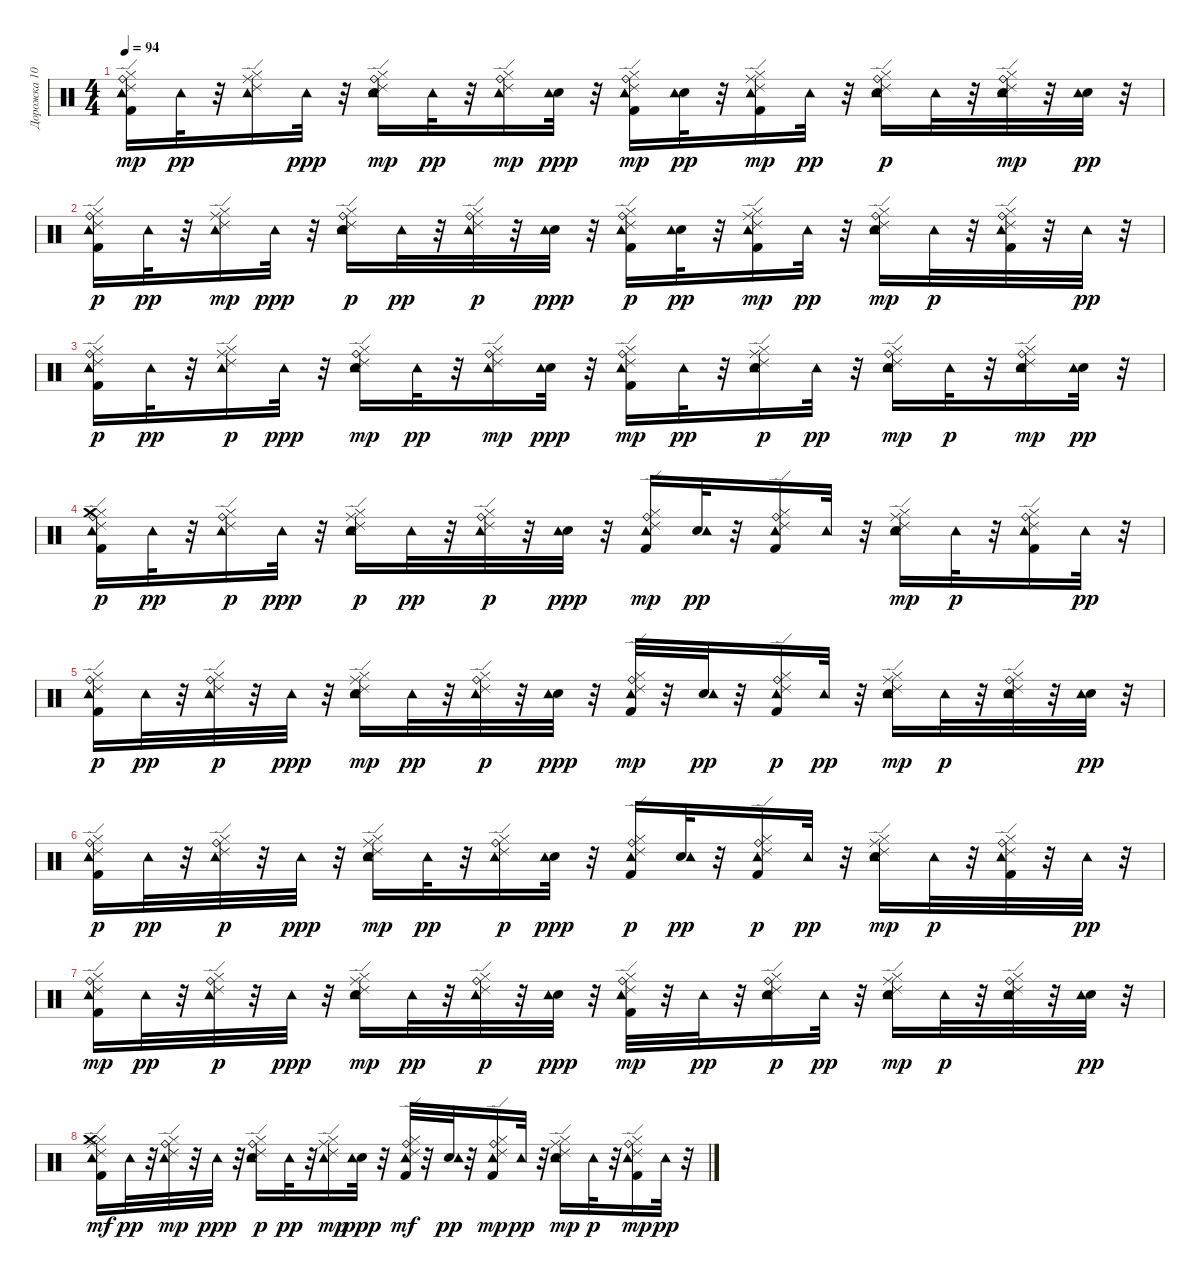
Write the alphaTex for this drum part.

\track ("Дорожка 10" "Дорожка 10") {instrument percussion}
\staff {score}
\articulation defaults
\ts (4 4)
\tempo 94
\clef neutral
\ks c
("Kick (hit) 2" "Hi-Hat (closed)" "Ride (bell)" "Tambourine (hit)" "Ride (edge) 2").16{dy mp} "Tambourine (hit)".32{dy pp} r.32 ("Hi-Hat (closed)" "Ride (middle)" "Tambourine (hit)" "Ride (edge) 2").16 "Tambourine (hit)".32{dy ppp} r.32 ("Electric Snare (hit)" "Hi-Hat (closed)" "Ride (bell)" "Tambourine (hit)" "Ride (edge) 2").16{dy mp} "Tambourine (hit)".32{dy pp} r.32 ("Hi-Hat (closed)" "Ride (bell)" "Tambourine (hit)" "Ride (edge) 2").16{dy mp} ("Electric Snare (hit)" "Tambourine (hit)").32{dy ppp} r.32 ("Kick (hit) 2" "Hi-Hat (closed)" "Ride (bell)" "Tambourine (hit)" "Ride (edge) 2").16{dy mp} ("Electric Snare (hit)" "Tambourine (hit)").32{dy pp} r.32 ("Kick (hit) 2" "Hi-Hat (closed)" "Ride (middle)" "Tambourine (hit)" "Ride (edge) 2").16{dy mp} "Tambourine (hit)".32{dy pp} r.32 ("Electric Snare (hit)" "Hi-Hat (closed)" "Ride (bell)" "Tambourine (hit)" "Ride (edge) 2").16{dy p} "Tambourine (hit)".32 r.32 ("Electric Snare (hit)" "Hi-Hat (closed)" "Ride (bell)" "Tambourine (hit)" "Ride (edge) 2").32{dy mp} r.32 ("Electric Snare (hit)" "Tambourine (hit)").32{dy pp} r.32 |
("Kick (hit) 2" "Hi-Hat (closed)" "Ride (bell)" "Tambourine (hit)" "Ride (edge) 2").16{dy p} "Tambourine (hit)".32{dy pp} r.32 ("Hi-Hat (closed)" "Ride (middle)" "Tambourine (hit)" "Ride (edge) 2").16{dy mp} "Tambourine (hit)".32{dy ppp} r.32 ("Electric Snare (hit)" "Hi-Hat (closed)" "Ride (bell)" "Tambourine (hit)" "Ride (edge) 2").16{dy p} "Tambourine (hit)".32{dy pp} r.32 ("Hi-Hat (closed)" "Ride (bell)" "Tambourine (hit)" "Ride (edge) 2").32{dy p} r.32 ("Electric Snare (hit)" "Tambourine (hit)").32{dy ppp} r.32 ("Kick (hit) 2" "Hi-Hat (closed)" "Ride (bell)" "Tambourine (hit)" "Ride (edge) 2").16{dy p} ("Electric Snare (hit)" "Tambourine (hit)").32{dy pp} r.32 ("Kick (hit) 2" "Hi-Hat (closed)" "Ride (middle)" "Tambourine (hit)" "Ride (edge) 2").16{dy mp} "Tambourine (hit)".32{dy pp} r.32 ("Electric Snare (hit)" "Hi-Hat (closed)" "Ride (bell)" "Tambourine (hit)" "Ride (edge) 2").16{dy mp} "Tambourine (hit)".32{dy p} r.32 ("Kick (hit) 2" "Hi-Hat (closed)" "Ride (bell)" "Tambourine (hit)" "Ride (edge) 2").32 r.32 "Tambourine (hit)".32{dy pp} r.32 |
("Kick (hit) 2" "Hi-Hat (closed)" "Ride (bell)" "Tambourine (hit)" "Ride (edge) 2").16{dy p} "Tambourine (hit)".32{dy pp} r.32 ("Hi-Hat (closed)" "Ride (middle)" "Tambourine (hit)" "Ride (edge) 2").16{dy p} "Tambourine (hit)".32{dy ppp} r.32 ("Electric Snare (hit)" "Hi-Hat (closed)" "Ride (bell)" "Tambourine (hit)" "Ride (edge) 2").16{dy mp} "Tambourine (hit)".32{dy pp} r.32 ("Hi-Hat (closed)" "Ride (bell)" "Tambourine (hit)" "Ride (edge) 2").16{dy mp} ("Electric Snare (hit)" "Tambourine (hit)").32{dy ppp} r.32 ("Kick (hit) 2" "Hi-Hat (closed)" "Ride (bell)" "Tambourine (hit)" "Ride (edge) 2").16{dy mp} "Tambourine (hit)".32{dy pp} r.32 ("Electric Snare (hit)" "Hi-Hat (closed)" "Ride (middle)" "Tambourine (hit)" "Ride (edge) 2").16{dy p} "Tambourine (hit)".32{dy pp} r.32 ("Electric Snare (hit)" "Hi-Hat (closed)" "Ride (bell)" "Tambourine (hit)" "Ride (edge) 2").16{dy mp} "Tambourine (hit)".32{dy p} r.32 ("Electric Snare (hit)" "Hi-Hat (closed)" "Ride (bell)" "Tambourine (hit)" "Ride (edge) 2").16{dy mp} ("Electric Snare (hit)" "Tambourine (hit)").32{dy pp} r.32 |
("Kick (hit) 2" "Hi-Hat (closed)" "Ride (bell)" "Tambourine (hit)" "Crash medium (hit)" "Ride (edge) 2").16{dy p} "Tambourine (hit)".32{dy pp} r.32 ("Hi-Hat (closed)" "Ride (bell)" "Tambourine (hit)" "Ride (edge) 2").16{dy p} "Tambourine (hit)".32{dy ppp} r.32 ("Electric Snare (hit)" "Hi-Hat (closed)" "Ride (middle)" "Tambourine (hit)" "Ride (edge) 2").16{dy p} "Tambourine (hit)".32{dy pp} r.32 ("Hi-Hat (closed)" "Ride (bell)" "Tambourine (hit)" "Ride (edge) 2").32{dy p} r.32 ("Electric Snare (hit)" "Tambourine (hit)").32{dy ppp} r.32 ("Kick (hit) 2" "Hi-Hat (closed)" "Ride (bell)" "Tambourine (hit)" "Ride (edge) 2").16{dy mp} ("Electric Snare (hit)" "Tambourine (hit)").32{dy pp} r.32 ("Kick (hit) 2" "Hi-Hat (closed)" "Ride (bell)" "Tambourine (hit)" "Ride (edge) 2").16 "Tambourine (hit)".32 r.32 ("Electric Snare (hit)" "Hi-Hat (closed)" "Ride (middle)" "Tambourine (hit)" "Ride (edge) 2").16{dy mp} "Tambourine (hit)".32{dy p} r.32 ("Kick (hit) 2" "Hi-Hat (closed)" "Ride (bell)" "Tambourine (hit)" "Ride (edge) 2").16 "Tambourine (hit)".32{dy pp} r.32 |
("Kick (hit) 2" "Hi-Hat (closed)" "Ride (bell)" "Tambourine (hit)" "Ride (edge) 2").16{dy p} "Tambourine (hit)".32{dy pp} r.32 ("Hi-Hat (closed)" "Ride (bell)" "Tambourine (hit)" "Ride (edge) 2").32{dy p} r.32 "Tambourine (hit)".32{dy ppp} r.32 ("Electric Snare (hit)" "Hi-Hat (closed)" "Ride (middle)" "Tambourine (hit)" "Ride (edge) 2").16{dy mp} "Tambourine (hit)".32{dy pp} r.32 ("Hi-Hat (closed)" "Ride (bell)" "Tambourine (hit)" "Ride (edge) 2").32{dy p} r.32 ("Electric Snare (hit)" "Tambourine (hit)").32{dy ppp} r.32 ("Kick (hit) 2" "Hi-Hat (closed)" "Ride (bell)" "Tambourine (hit)" "Ride (edge) 2").32{dy mp} r.32 ("Electric Snare (hit)" "Tambourine (hit)").32{dy pp} r.32 ("Kick (hit) 2" "Hi-Hat (closed)" "Ride (bell)" "Tambourine (hit)" "Ride (edge) 2").16{dy p} "Tambourine (hit)".32{dy pp} r.32 ("Electric Snare (hit)" "Hi-Hat (closed)" "Ride (middle)" "Tambourine (hit)" "Ride (edge) 2").16{dy mp} "Tambourine (hit)".32{dy p} r.32 ("Electric Snare (hit)" "Hi-Hat (closed)" "Ride (bell)" "Tambourine (hit)" "Ride (edge) 2").32 r.32 ("Electric Snare (hit)" "Tambourine (hit)").32{dy pp} r.32 |
("Kick (hit) 2" "Hi-Hat (closed)" "Ride (bell)" "Tambourine (hit)" "Ride (edge) 2").16{dy p} "Tambourine (hit)".32{dy pp} r.32 ("Hi-Hat (closed)" "Ride (bell)" "Tambourine (hit)" "Ride (edge) 2").32{dy p} r.32 "Tambourine (hit)".32{dy ppp} r.32 ("Electric Snare (hit)" "Hi-Hat (closed)" "Ride (middle)" "Tambourine (hit)" "Ride (edge) 2").16{dy mp} "Tambourine (hit)".32{dy pp} r.32 ("Hi-Hat (closed)" "Ride (bell)" "Tambourine (hit)" "Ride (edge) 2").16{dy p} ("Electric Snare (hit)" "Tambourine (hit)").32{dy ppp} r.32 ("Kick (hit) 2" "Hi-Hat (closed)" "Ride (bell)" "Tambourine (hit)" "Ride (edge) 2").16{dy p} ("Electric Snare (hit)" "Tambourine (hit)").32{dy pp} r.32 ("Kick (hit) 2" "Hi-Hat (closed)" "Ride (bell)" "Tambourine (hit)" "Ride (edge) 2").16{dy p} "Tambourine (hit)".32{dy pp} r.32 ("Electric Snare (hit)" "Hi-Hat (closed)" "Ride (middle)" "Tambourine (hit)" "Ride (edge) 2").16{dy mp} "Tambourine (hit)".32{dy p} r.32 ("Kick (hit) 2" "Hi-Hat (closed)" "Ride (bell)" "Tambourine (hit)" "Ride (edge) 2").32 r.32 "Tambourine (hit)".32{dy pp} r.32 |
("Kick (hit) 2" "Hi-Hat (closed)" "Ride (bell)" "Tambourine (hit)" "Ride (edge) 2").16{dy mp} "Tambourine (hit)".32{dy pp} r.32 ("Hi-Hat (closed)" "Ride (bell)" "Tambourine (hit)" "Ride (edge) 2").32{dy p} r.32 "Tambourine (hit)".32{dy ppp} r.32 ("Electric Snare (hit)" "Hi-Hat (closed)" "Ride (middle)" "Tambourine (hit)" "Ride (edge) 2").16{dy mp} "Tambourine (hit)".32{dy pp} r.32 ("Hi-Hat (closed)" "Ride (bell)" "Tambourine (hit)" "Ride (edge) 2").32{dy p} r.32 ("Electric Snare (hit)" "Tambourine (hit)").32{dy ppp} r.32 ("Kick (hit) 2" "Hi-Hat (closed)" "Ride (bell)" "Tambourine (hit)" "Ride (edge) 2").32{dy mp} r.32 "Tambourine (hit)".32{dy pp} r.32 ("Electric Snare (hit)" "Hi-Hat (closed)" "Ride (bell)" "Tambourine (hit)" "Ride (edge) 2").16{dy p} "Tambourine (hit)".32{dy pp} r.32 ("Electric Snare (hit)" "Hi-Hat (closed)" "Ride (middle)" "Tambourine (hit)" "Ride (edge) 2").16{dy mp} "Tambourine (hit)".32{dy p} r.32 ("Electric Snare (hit)" "Hi-Hat (closed)" "Ride (bell)" "Tambourine (hit)" "Ride (edge) 2").32 r.32 ("Electric Snare (hit)" "Tambourine (hit)").32{dy pp} r.32 |
("Kick (hit) 2" "Hi-Hat (closed)" "Ride (middle)" "Tambourine (hit)" "Crash medium (hit)" "Ride (edge) 2").16{dy mf} "Tambourine (hit)".32{dy pp} r.32 ("Hi-Hat (closed)" "Ride (bell)" "Tambourine (hit)" "Ride (edge) 2").32{dy mp} r.32 "Tambourine (hit)".32{dy ppp} r.32 ("Electric Snare (hit)" "Hi-Hat (closed)" "Ride (bell)" "Tambourine (hit)" "Ride (edge) 2").16{dy p} "Tambourine (hit)".32{dy pp} r.32 ("Hi-Hat (closed)" "Ride (middle)" "Tambourine (hit)" "Ride (edge) 2").16{dy mp} ("Electric Snare (hit)" "Tambourine (hit)").32{dy ppp} r.32 ("Kick (hit) 2" "Hi-Hat (closed)" "Ride (bell)" "Tambourine (hit)" "Ride (edge) 2").32{dy mf} r.32 ("Electric Snare (hit)" "Tambourine (hit)").32{dy pp} r.32 ("Kick (hit) 2" "Hi-Hat (closed)" "Ride (bell)" "Tambourine (hit)" "Ride (edge) 2").16{dy mp} "Tambourine (hit)".32{dy pp} r.32 ("Electric Snare (hit)" "Hi-Hat (closed)" "Ride (middle)" "Tambourine (hit)" "Ride (edge) 2").16{dy mp} "Tambourine (hit)".32{dy p} r.32 ("Kick (hit) 2" "Hi-Hat (closed)" "Ride (bell)" "Tambourine (hit)" "Ride (edge) 2").16{dy mp} "Tambourine (hit)".32{dy pp} r.32
